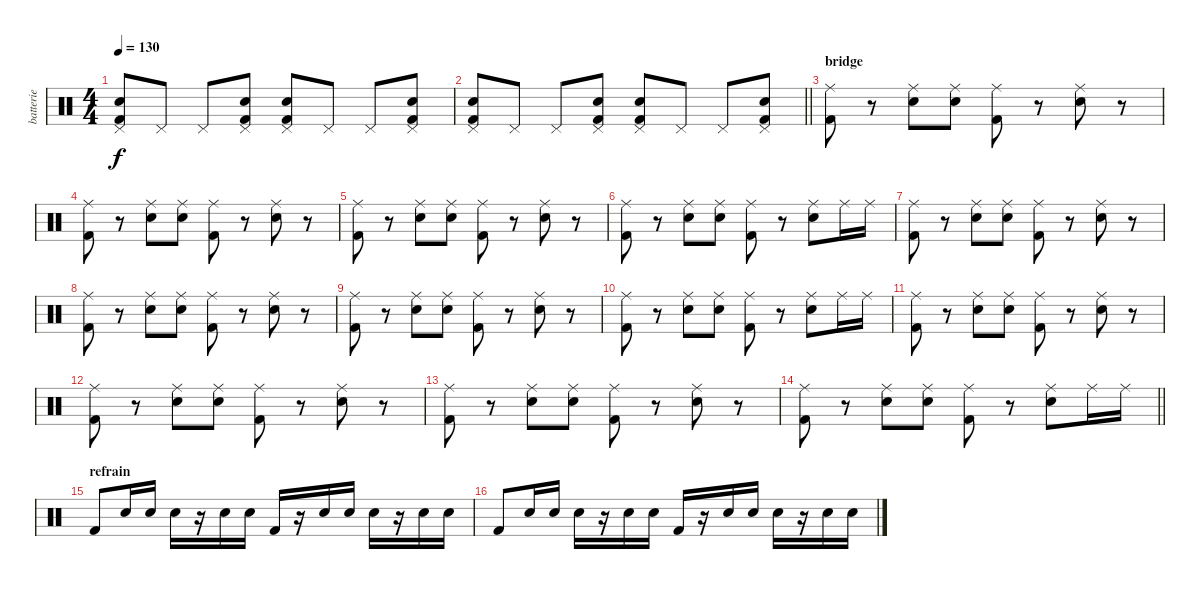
\track ("batterie" "batterie") {instrument percussion}
\staff {score}
\articulation defaults
\ts (4 4)
\tempo 130
\clef neutral
\ks c
("Pedal Hi-Hat (hit)" "Snare (hit) 2" "Kick (hit) 2").8{dy f} "Pedal Hi-Hat (hit)".8 "Pedal Hi-Hat (hit)".8 ("Pedal Hi-Hat (hit)" "Snare (hit) 2" "Kick (hit) 2").8 ("Pedal Hi-Hat (hit)" "Snare (hit) 2" "Kick (hit) 2").8 "Pedal Hi-Hat (hit)".8 "Pedal Hi-Hat (hit)".8 ("Pedal Hi-Hat (hit)" "Snare (hit) 2" "Kick (hit) 2").8 |
\barLineRight lightlight
("Pedal Hi-Hat (hit)" "Snare (hit) 2" "Kick (hit) 2").8 "Pedal Hi-Hat (hit)".8 "Pedal Hi-Hat (hit)".8 ("Pedal Hi-Hat (hit)" "Snare (hit) 2" "Kick (hit) 2").8 ("Pedal Hi-Hat (hit)" "Snare (hit) 2" "Kick (hit) 2").8 "Pedal Hi-Hat (hit)".8 "Pedal Hi-Hat (hit)".8 ("Pedal Hi-Hat (hit)" "Snare (hit) 2" "Kick (hit) 2").8 |
\section ("" "bridge")
("Ride (middle)" "Kick (hit) 2").8 r.8 ("Ride (middle)" "Snare (hit) 2").8 ("Ride (middle)" "Snare (hit) 2").8 ("Ride (middle)" "Kick (hit) 2").8 r.8 ("Ride (middle)" "Snare (hit) 2").8 r.8 |
("Ride (middle)" "Kick (hit) 2").8 r.8 ("Ride (middle)" "Snare (hit) 2").8 ("Ride (middle)" "Snare (hit) 2").8 ("Ride (middle)" "Kick (hit) 2").8 r.8 ("Ride (middle)" "Snare (hit) 2").8 r.8 |
("Ride (middle)" "Kick (hit) 2").8 r.8 ("Ride (middle)" "Snare (hit) 2").8 ("Ride (middle)" "Snare (hit) 2").8 ("Ride (middle)" "Kick (hit) 2").8 r.8 ("Ride (middle)" "Snare (hit) 2").8 r.8 |
("Ride (middle)" "Kick (hit) 2").8 r.8 ("Ride (middle)" "Snare (hit) 2").8 ("Ride (middle)" "Snare (hit) 2").8 ("Ride (middle)" "Kick (hit) 2").8 r.8 ("Ride (middle)" "Snare (hit) 2").8 "Ride (middle)".16 "Ride (middle)".16 |
("Ride (middle)" "Kick (hit) 2").8 r.8 ("Ride (middle)" "Snare (hit) 2").8 ("Ride (middle)" "Snare (hit) 2").8 ("Ride (middle)" "Kick (hit) 2").8 r.8 ("Ride (middle)" "Snare (hit) 2").8 r.8 |
("Ride (middle)" "Kick (hit) 2").8 r.8 ("Ride (middle)" "Snare (hit) 2").8 ("Ride (middle)" "Snare (hit) 2").8 ("Ride (middle)" "Kick (hit) 2").8 r.8 ("Ride (middle)" "Snare (hit) 2").8 r.8 |
("Ride (middle)" "Kick (hit) 2").8 r.8 ("Ride (middle)" "Snare (hit) 2").8 ("Ride (middle)" "Snare (hit) 2").8 ("Ride (middle)" "Kick (hit) 2").8 r.8 ("Ride (middle)" "Snare (hit) 2").8 r.8 |
("Ride (middle)" "Kick (hit) 2").8 r.8 ("Ride (middle)" "Snare (hit) 2").8 ("Ride (middle)" "Snare (hit) 2").8 ("Ride (middle)" "Kick (hit) 2").8 r.8 ("Ride (middle)" "Snare (hit) 2").8 "Ride (middle)".16 "Ride (middle)".16 |
("Ride (middle)" "Kick (hit) 2").8 r.8 ("Ride (middle)" "Snare (hit) 2").8 ("Ride (middle)" "Snare (hit) 2").8 ("Ride (middle)" "Kick (hit) 2").8 r.8 ("Ride (middle)" "Snare (hit) 2").8 r.8 |
("Ride (middle)" "Kick (hit) 2").8 r.8 ("Ride (middle)" "Snare (hit) 2").8 ("Ride (middle)" "Snare (hit) 2").8 ("Ride (middle)" "Kick (hit) 2").8 r.8 ("Ride (middle)" "Snare (hit) 2").8 r.8 |
("Ride (middle)" "Kick (hit) 2").8 r.8 ("Ride (middle)" "Snare (hit) 2").8 ("Ride (middle)" "Snare (hit) 2").8 ("Ride (middle)" "Kick (hit) 2").8 r.8 ("Ride (middle)" "Snare (hit) 2").8 r.8 |
\barLineRight lightlight
("Ride (middle)" "Kick (hit) 2").8 r.8 ("Ride (middle)" "Snare (hit) 2").8 ("Ride (middle)" "Snare (hit) 2").8 ("Ride (middle)" "Kick (hit) 2").8 r.8 ("Ride (middle)" "Snare (hit) 2").8 "Ride (middle)".16 "Ride (middle)".16 |
\section ("" "refrain")
"Kick (hit) 2".8 "Snare (hit) 2".16 "Snare (hit) 2".16 "Snare (hit) 2".16 r.16 "Snare (hit) 2".16 "Snare (hit) 2".16 "Kick (hit) 2".16 r.16 "Snare (hit) 2".16 "Snare (hit) 2".16 "Snare (hit) 2".16 r.16 "Snare (hit) 2".16 "Snare (hit) 2".16 |
"Kick (hit) 2".8 "Snare (hit) 2".16 "Snare (hit) 2".16 "Snare (hit) 2".16 r.16 "Snare (hit) 2".16 "Snare (hit) 2".16 "Kick (hit) 2".16 r.16 "Snare (hit) 2".16 "Snare (hit) 2".16 "Snare (hit) 2".16 r.16 "Snare (hit) 2".16 "Snare (hit) 2".16
